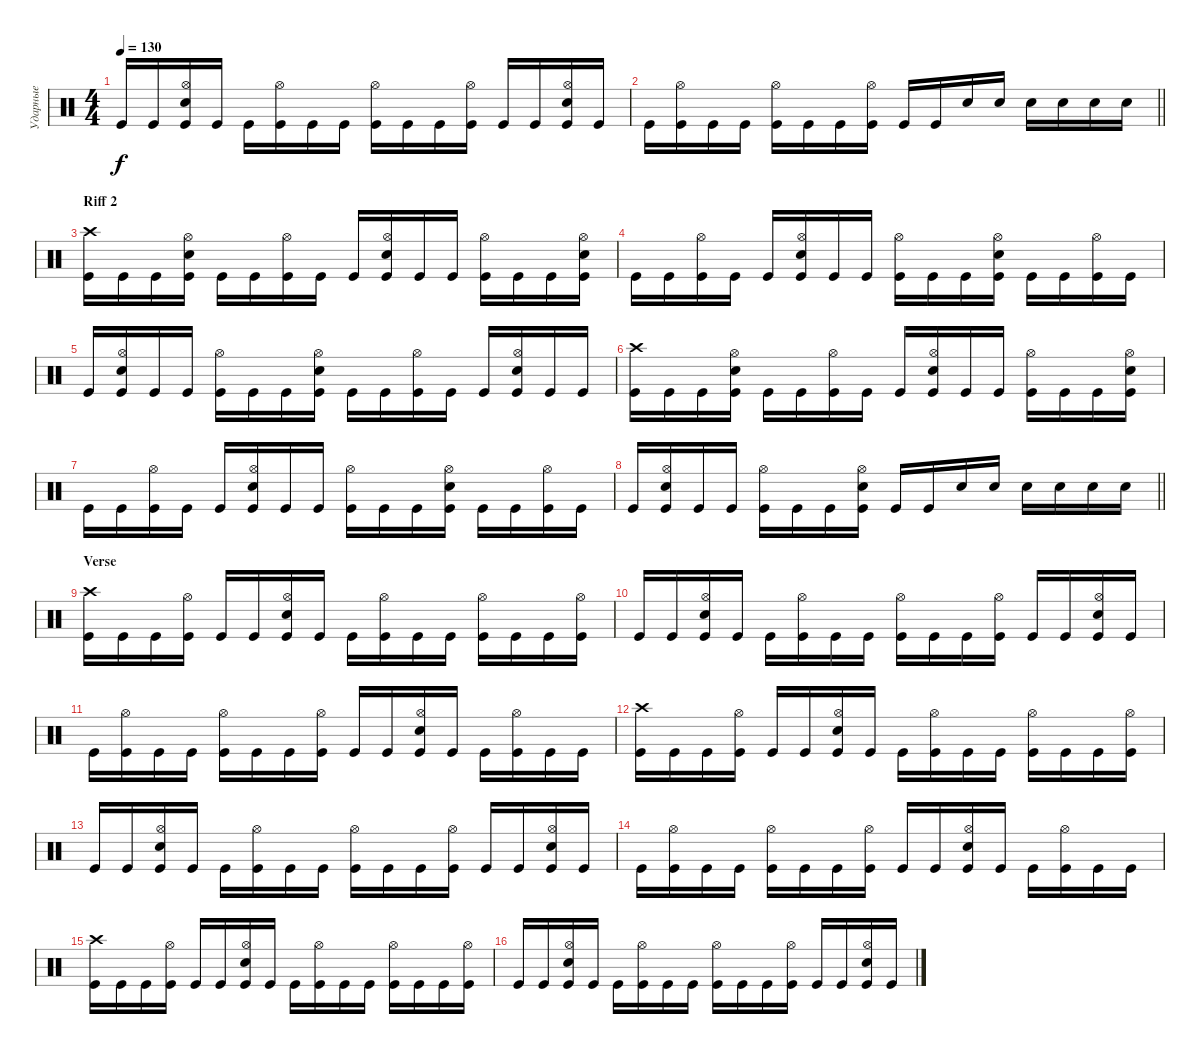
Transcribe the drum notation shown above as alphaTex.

\track ("Ударные" "Ударные") {instrument percussion}
\staff {score}
\articulation defaults
\ts (4 4)
\tempo 130
\clef neutral
\ks c "Kick (hit)".16{dy f} "Kick (hit)".16
("Hi-Hat (open)" "Snare (hit) 2" "Kick (hit)").16 "Kick (hit)".16 "Kick (hit)".16 ("Hi-Hat (open)" "Kick (hit)").16 "Kick (hit)".16 "Kick (hit)".16 ("Hi-Hat (open)" "Kick (hit)").16 "Kick (hit)".16 "Kick (hit)".16 ("Hi-Hat (open)" "Kick (hit)").16 "Kick (hit)".16 "Kick (hit)".16 ("Hi-Hat (open)" "Snare (hit) 2" "Kick (hit)").16 "Kick (hit)".16 |
\barLineRight lightlight "Kick (hit)".16
("Hi-Hat (open)" "Kick (hit)").16 "Kick (hit)".16 "Kick (hit)".16 ("Hi-Hat (open)" "Kick (hit)").16 "Kick (hit)".16 "Kick (hit)".16 ("Hi-Hat (open)" "Kick (hit)").16 "Kick (hit)".16 "Kick (hit)".16 "Snare (hit) 2".16 "Snare (hit) 2".16 "Snare (hit) 2".16 "Snare (hit) 2".16 "Snare (hit) 2".16 "Snare (hit) 2".16 |
\section ("" "Riff 2")
("Crash high (hit)" "Kick (hit)").16 "Kick (hit)".16 "Kick (hit)".16 ("Hi-Hat (open)" "Snare (hit) 2" "Kick (hit)").16 "Kick (hit)".16 "Kick (hit)".16 ("Hi-Hat (open)" "Kick (hit)").16 "Kick (hit)".16 "Kick (hit)".16 ("Snare (hit) 2" "Hi-Hat (open)" "Kick (hit)").16 "Kick (hit)".16 "Kick (hit)".16 ("Hi-Hat (open)" "Kick (hit)").16 "Kick (hit)".16 "Kick (hit)".16 ("Snare (hit) 2" "Hi-Hat (open)" "Kick (hit)").16 |
"Kick (hit)".16 "Kick (hit)".16 ("Hi-Hat (open)" "Kick (hit)").16 "Kick (hit)".16 "Kick (hit)".16 ("Snare (hit) 2" "Hi-Hat (open)" "Kick (hit)").16 "Kick (hit)".16 "Kick (hit)".16 ("Hi-Hat (open)" "Kick (hit)").16 "Kick (hit)".16 "Kick (hit)".16 ("Hi-Hat (open)" "Snare (hit) 2" "Kick (hit)").16 "Kick (hit)".16 "Kick (hit)".16 ("Hi-Hat (open)" "Kick (hit)").16 "Kick (hit)".16 |
"Kick (hit)".16 ("Snare (hit) 2" "Hi-Hat (open)" "Kick (hit)").16 "Kick (hit)".16 "Kick (hit)".16 ("Hi-Hat (open)" "Kick (hit)").16 "Kick (hit)".16 "Kick (hit)".16 ("Snare (hit) 2" "Hi-Hat (open)" "Kick (hit)").16 "Kick (hit)".16 "Kick (hit)".16 ("Hi-Hat (open)" "Kick (hit)").16 "Kick (hit)".16 "Kick (hit)".16 ("Snare (hit) 2" "Hi-Hat (open)" "Kick (hit)").16 "Kick (hit)".16 "Kick (hit)".16 |
("Crash high (hit)" "Kick (hit)").16 "Kick (hit)".16 "Kick (hit)".16 ("Hi-Hat (open)" "Snare (hit) 2" "Kick (hit)").16 "Kick (hit)".16 "Kick (hit)".16 ("Hi-Hat (open)" "Kick (hit)").16 "Kick (hit)".16 "Kick (hit)".16 ("Snare (hit) 2" "Hi-Hat (open)" "Kick (hit)").16 "Kick (hit)".16 "Kick (hit)".16 ("Hi-Hat (open)" "Kick (hit)").16 "Kick (hit)".16 "Kick (hit)".16 ("Snare (hit) 2" "Hi-Hat (open)" "Kick (hit)").16 |
"Kick (hit)".16 "Kick (hit)".16 ("Hi-Hat (open)" "Kick (hit)").16 "Kick (hit)".16 "Kick (hit)".16 ("Snare (hit) 2" "Hi-Hat (open)" "Kick (hit)").16 "Kick (hit)".16 "Kick (hit)".16 ("Hi-Hat (open)" "Kick (hit)").16 "Kick (hit)".16 "Kick (hit)".16 ("Hi-Hat (open)" "Snare (hit) 2" "Kick (hit)").16 "Kick (hit)".16 "Kick (hit)".16 ("Hi-Hat (open)" "Kick (hit)").16 "Kick (hit)".16 |
\barLineRight lightlight "Kick (hit)".16
("Snare (hit) 2" "Hi-Hat (open)" "Kick (hit)").16 "Kick (hit)".16 "Kick (hit)".16 ("Hi-Hat (open)" "Kick (hit)").16 "Kick (hit)".16 "Kick (hit)".16 ("Snare (hit) 2" "Hi-Hat (open)" "Kick (hit)").16 "Kick (hit)".16 "Kick (hit)".16 "Snare (hit) 2".16 "Snare (hit) 2".16 "Snare (hit) 2".16 "Snare (hit) 2".16 "Snare (hit) 2".16 "Snare (hit) 2".16 |
\section ("" "Verse")
("Crash high (hit)" "Kick (hit)").16 "Kick (hit)".16 "Kick (hit)".16 ("Hi-Hat (open)" "Kick (hit)").16 "Kick (hit)".16 "Kick (hit)".16 ("Hi-Hat (open)" "Snare (hit) 2" "Kick (hit)").16 "Kick (hit)".16 "Kick (hit)".16 ("Hi-Hat (open)" "Kick (hit)").16 "Kick (hit)".16 "Kick (hit)".16 ("Hi-Hat (open)" "Kick (hit)").16 "Kick (hit)".16 "Kick (hit)".16 ("Hi-Hat (open)" "Kick (hit)").16 |
"Kick (hit)".16 "Kick (hit)".16 ("Hi-Hat (open)" "Snare (hit) 2" "Kick (hit)").16 "Kick (hit)".16 "Kick (hit)".16 ("Hi-Hat (open)" "Kick (hit)").16 "Kick (hit)".16 "Kick (hit)".16 ("Hi-Hat (open)" "Kick (hit)").16 "Kick (hit)".16 "Kick (hit)".16 ("Hi-Hat (open)" "Kick (hit)").16 "Kick (hit)".16 "Kick (hit)".16 ("Hi-Hat (open)" "Snare (hit) 2" "Kick (hit)").16 "Kick (hit)".16 |
"Kick (hit)".16 ("Hi-Hat (open)" "Kick (hit)").16 "Kick (hit)".16 "Kick (hit)".16 ("Hi-Hat (open)" "Kick (hit)").16 "Kick (hit)".16 "Kick (hit)".16 ("Hi-Hat (open)" "Kick (hit)").16 "Kick (hit)".16 "Kick (hit)".16 ("Snare (hit) 2" "Hi-Hat (open)" "Kick (hit)").16 "Kick (hit)".16 "Kick (hit)".16 ("Hi-Hat (open)" "Kick (hit)").16 "Kick (hit)".16 "Kick (hit)".16 |
("Crash high (hit)" "Kick (hit)").16 "Kick (hit)".16 "Kick (hit)".16 ("Hi-Hat (open)" "Kick (hit)").16 "Kick (hit)".16 "Kick (hit)".16 ("Hi-Hat (open)" "Snare (hit) 2" "Kick (hit)").16 "Kick (hit)".16 "Kick (hit)".16 ("Hi-Hat (open)" "Kick (hit)").16 "Kick (hit)".16 "Kick (hit)".16 ("Hi-Hat (open)" "Kick (hit)").16 "Kick (hit)".16 "Kick (hit)".16 ("Hi-Hat (open)" "Kick (hit)").16 |
"Kick (hit)".16 "Kick (hit)".16 ("Hi-Hat (open)" "Snare (hit) 2" "Kick (hit)").16 "Kick (hit)".16 "Kick (hit)".16 ("Hi-Hat (open)" "Kick (hit)").16 "Kick (hit)".16 "Kick (hit)".16 ("Hi-Hat (open)" "Kick (hit)").16 "Kick (hit)".16 "Kick (hit)".16 ("Hi-Hat (open)" "Kick (hit)").16 "Kick (hit)".16 "Kick (hit)".16 ("Hi-Hat (open)" "Snare (hit) 2" "Kick (hit)").16 "Kick (hit)".16 |
"Kick (hit)".16 ("Hi-Hat (open)" "Kick (hit)").16 "Kick (hit)".16 "Kick (hit)".16 ("Hi-Hat (open)" "Kick (hit)").16 "Kick (hit)".16 "Kick (hit)".16 ("Hi-Hat (open)" "Kick (hit)").16 "Kick (hit)".16 "Kick (hit)".16 ("Snare (hit) 2" "Hi-Hat (open)" "Kick (hit)").16 "Kick (hit)".16 "Kick (hit)".16 ("Hi-Hat (open)" "Kick (hit)").16 "Kick (hit)".16 "Kick (hit)".16 |
("Crash high (hit)" "Kick (hit)").16 "Kick (hit)".16 "Kick (hit)".16 ("Hi-Hat (open)" "Kick (hit)").16 "Kick (hit)".16 "Kick (hit)".16 ("Hi-Hat (open)" "Snare (hit) 2" "Kick (hit)").16 "Kick (hit)".16 "Kick (hit)".16 ("Hi-Hat (open)" "Kick (hit)").16 "Kick (hit)".16 "Kick (hit)".16 ("Hi-Hat (open)" "Kick (hit)").16 "Kick (hit)".16 "Kick (hit)".16 ("Hi-Hat (open)" "Kick (hit)").16 |
"Kick (hit)".16 "Kick (hit)".16 ("Hi-Hat (open)" "Snare (hit) 2" "Kick (hit)").16 "Kick (hit)".16 "Kick (hit)".16 ("Hi-Hat (open)" "Kick (hit)").16 "Kick (hit)".16 "Kick (hit)".16 ("Hi-Hat (open)" "Kick (hit)").16 "Kick (hit)".16 "Kick (hit)".16 ("Hi-Hat (open)" "Kick (hit)").16 "Kick (hit)".16 "Kick (hit)".16 ("Hi-Hat (open)" "Snare (hit) 2" "Kick (hit)").16 "Kick (hit)".16
